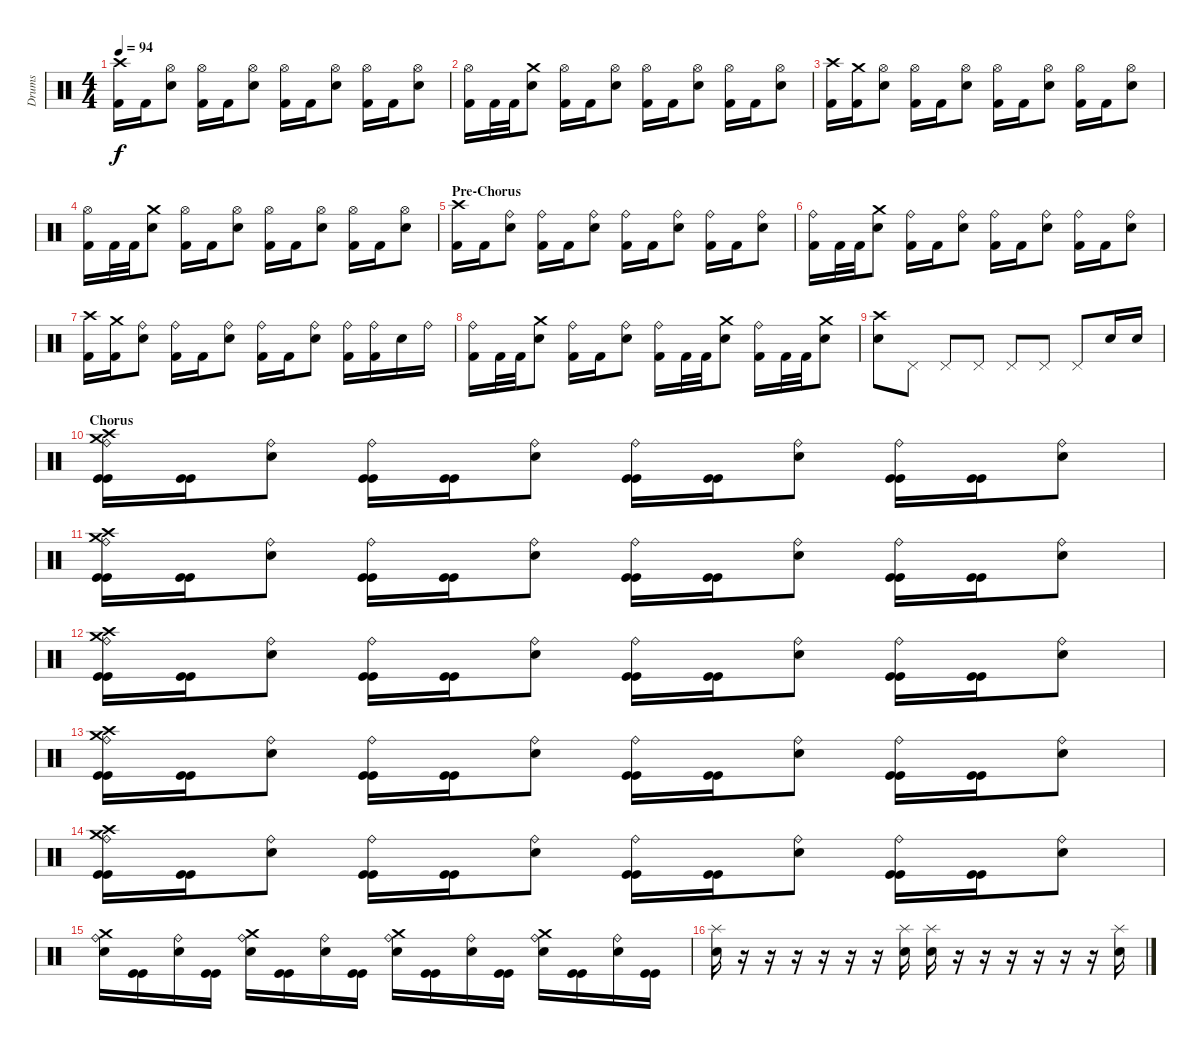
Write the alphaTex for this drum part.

\track ("Drums" "Drums") {instrument percussion}
\staff {score}
\articulation defaults
\ts (4 4)
\tempo 94
\clef neutral
\ks c
("Crash high (hit)" "Kick (hit) 2").16{dy f} "Kick (hit) 2".16 ("Hi-Hat (open)" "Snare (hit) 2").8 ("Hi-Hat (open)" "Kick (hit) 2").16 "Kick (hit) 2".16 ("Hi-Hat (open)" "Snare (hit) 2").8 ("Hi-Hat (open)" "Kick (hit) 2").16 "Kick (hit) 2".16 ("Hi-Hat (open)" "Snare (hit) 2").8 ("Hi-Hat (open)" "Kick (hit) 2").16 "Kick (hit) 2".16 ("Hi-Hat (open)" "Snare (hit) 2").8 |
("Hi-Hat (open)" "Kick (hit) 2").16 "Kick (hit) 2".32 "Kick (hit) 2".32 ("Crash medium (hit)" "Snare (hit) 2").8 ("Hi-Hat (open)" "Kick (hit) 2").16 "Kick (hit) 2".16 ("Hi-Hat (open)" "Snare (hit) 2").8 ("Hi-Hat (open)" "Kick (hit) 2").16 "Kick (hit) 2".16 ("Hi-Hat (open)" "Snare (hit) 2").8 ("Hi-Hat (open)" "Kick (hit) 2").16 "Kick (hit) 2".16 ("Hi-Hat (open)" "Snare (hit) 2").8 |
("Crash high (hit)" "Kick (hit) 2").16 ("Crash medium (hit)" "Kick (hit) 2").16 ("Hi-Hat (open)" "Snare (hit) 2").8 ("Hi-Hat (open)" "Kick (hit) 2").16 "Kick (hit) 2".16 ("Hi-Hat (open)" "Snare (hit) 2").8 ("Hi-Hat (open)" "Kick (hit) 2").16 "Kick (hit) 2".16 ("Hi-Hat (open)" "Snare (hit) 2").8 ("Hi-Hat (open)" "Kick (hit) 2").16 "Kick (hit) 2".16 ("Hi-Hat (open)" "Snare (hit) 2").8 |
("Hi-Hat (open)" "Kick (hit) 2").16 "Kick (hit) 2".32 "Kick (hit) 2".32 ("Crash medium (hit)" "Snare (hit) 2").8 ("Hi-Hat (open)" "Kick (hit) 2").16 "Kick (hit) 2".16 ("Hi-Hat (open)" "Snare (hit) 2").8 ("Hi-Hat (open)" "Kick (hit) 2").16 "Kick (hit) 2".16 ("Hi-Hat (open)" "Snare (hit) 2").8 ("Hi-Hat (open)" "Kick (hit) 2").16 "Kick (hit) 2".16 ("Hi-Hat (open)" "Snare (hit) 2").8 |
\section ("" "Pre-Chorus")
("Crash high (hit)" "Kick (hit) 2").16 "Kick (hit) 2".16 ("Ride (bell)" "Snare (hit) 2").8 ("Ride (bell)" "Kick (hit) 2").16 "Kick (hit) 2".16 ("Ride (bell)" "Snare (hit) 2").8 ("Ride (bell)" "Kick (hit) 2").16 "Kick (hit) 2".16 ("Ride (bell)" "Snare (hit) 2").8 ("Ride (bell)" "Kick (hit) 2").16 "Kick (hit) 2".16 ("Ride (bell)" "Snare (hit) 2").8 |
("Ride (bell)" "Kick (hit) 2").16 "Kick (hit) 2".32 "Kick (hit) 2".32 ("Crash medium (hit)" "Snare (hit) 2").8 ("Ride (bell)" "Kick (hit) 2").16 "Kick (hit) 2".16 ("Ride (bell)" "Snare (hit) 2").8 ("Ride (bell)" "Kick (hit) 2").16 "Kick (hit) 2".16 ("Ride (bell)" "Snare (hit) 2").8 ("Ride (bell)" "Kick (hit) 2").16 "Kick (hit) 2".16 ("Ride (bell)" "Snare (hit) 2").8 |
("Crash high (hit)" "Kick (hit) 2").16 ("Crash medium (hit)" "Kick (hit) 2").16 ("Ride (bell)" "Snare (hit) 2").8 ("Ride (bell)" "Kick (hit) 2").16 "Kick (hit) 2".16 ("Ride (bell)" "Snare (hit) 2").8 ("Ride (bell)" "Kick (hit) 2").16 "Kick (hit) 2".16 ("Ride (bell)" "Snare (hit) 2").8 ("Ride (bell)" "Kick (hit) 2").16 ("Ride (bell)" "Kick (hit) 2").16 "Snare (hit) 2".16 "Ride (bell)".16 |
("Ride (bell)" "Kick (hit) 2").16 "Kick (hit) 2".32 "Kick (hit) 2".32 ("Crash medium (hit)" "Snare (hit) 2").8 ("Ride (bell)" "Kick (hit) 2").16 "Kick (hit) 2".16 ("Ride (bell)" "Snare (hit) 2").8 ("Ride (bell)" "Kick (hit) 2").16 "Kick (hit) 2".32 "Kick (hit) 2".32 ("Crash medium (hit)" "Snare (hit) 2").8 ("Ride (bell)" "Kick (hit) 2").16 "Kick (hit) 2".32 "Kick (hit) 2".32 ("Crash medium (hit)" "Snare (hit) 2").8 |
("Crash high (hit)" "Snare (hit) 2").8 "Pedal Hi-Hat (hit)".8 "Pedal Hi-Hat (hit)".8 "Pedal Hi-Hat (hit)".8 "Pedal Hi-Hat (hit)".8 "Pedal Hi-Hat (hit)".8 "Pedal Hi-Hat (hit)".8 "Snare (hit) 2".16 "Snare (hit) 2".16 |
\section ("" "Chorus")
("Ride (bell)" "Crash high (hit)" "Crash medium (hit)" "Kick (hit)" "Kick (hit)").16 ("Kick (hit)" "Kick (hit)").16 ("Ride (bell)" "Snare (hit) 2").8 ("Ride (bell)" "Kick (hit)" "Kick (hit)").16 ("Kick (hit)" "Kick (hit)").16 ("Ride (bell)" "Snare (hit) 2").8 ("Ride (bell)" "Kick (hit)" "Kick (hit)").16 ("Kick (hit)" "Kick (hit)").16 ("Ride (bell)" "Snare (hit) 2").8 ("Ride (bell)" "Kick (hit)" "Kick (hit)").16 ("Kick (hit)" "Kick (hit)").16 ("Ride (bell)" "Snare (hit) 2").8 |
("Ride (bell)" "Crash high (hit)" "Crash medium (hit)" "Kick (hit)" "Kick (hit)").16 ("Kick (hit)" "Kick (hit)").16 ("Ride (bell)" "Snare (hit) 2").8 ("Ride (bell)" "Kick (hit)" "Kick (hit)").16 ("Kick (hit)" "Kick (hit)").16 ("Ride (bell)" "Snare (hit) 2").8 ("Ride (bell)" "Kick (hit)" "Kick (hit)").16 ("Kick (hit)" "Kick (hit)").16 ("Ride (bell)" "Snare (hit) 2").8 ("Ride (bell)" "Kick (hit)" "Kick (hit)").16 ("Kick (hit)" "Kick (hit)").16 ("Ride (bell)" "Snare (hit) 2").8 |
("Ride (bell)" "Crash high (hit)" "Crash medium (hit)" "Kick (hit)" "Kick (hit)").16 ("Kick (hit)" "Kick (hit)").16 ("Ride (bell)" "Snare (hit) 2").8 ("Ride (bell)" "Kick (hit)" "Kick (hit)").16 ("Kick (hit)" "Kick (hit)").16 ("Ride (bell)" "Snare (hit) 2").8 ("Ride (bell)" "Kick (hit)" "Kick (hit)").16 ("Kick (hit)" "Kick (hit)").16 ("Ride (bell)" "Snare (hit) 2").8 ("Ride (bell)" "Kick (hit)" "Kick (hit)").16 ("Kick (hit)" "Kick (hit)").16 ("Ride (bell)" "Snare (hit) 2").8 |
("Ride (bell)" "Crash high (hit)" "Crash medium (hit)" "Kick (hit)" "Kick (hit)").16 ("Kick (hit)" "Kick (hit)").16 ("Ride (bell)" "Snare (hit) 2").8 ("Ride (bell)" "Kick (hit)" "Kick (hit)").16 ("Kick (hit)" "Kick (hit)").16 ("Ride (bell)" "Snare (hit) 2").8 ("Ride (bell)" "Kick (hit)" "Kick (hit)").16 ("Kick (hit)" "Kick (hit)").16 ("Ride (bell)" "Snare (hit) 2").8 ("Ride (bell)" "Kick (hit)" "Kick (hit)").16 ("Kick (hit)" "Kick (hit)").16 ("Ride (bell)" "Snare (hit) 2").8 |
("Ride (bell)" "Crash high (hit)" "Crash medium (hit)" "Kick (hit)" "Kick (hit)").16 ("Kick (hit)" "Kick (hit)").16 ("Ride (bell)" "Snare (hit) 2").8 ("Ride (bell)" "Kick (hit)" "Kick (hit)").16 ("Kick (hit)" "Kick (hit)").16 ("Ride (bell)" "Snare (hit) 2").8 ("Ride (bell)" "Kick (hit)" "Kick (hit)").16 ("Kick (hit)" "Kick (hit)").16 ("Ride (bell)" "Snare (hit) 2").8 ("Ride (bell)" "Kick (hit)" "Kick (hit)").16 ("Kick (hit)" "Kick (hit)").16 ("Ride (bell)" "Snare (hit) 2").8 |
("Ride (bell)" "Snare (hit) 2" "Crash medium (hit)").16 ("Kick (hit)" "Kick (hit)").16 ("Ride (bell)" "Snare (hit) 2").16 ("Kick (hit)" "Kick (hit)").16 ("Ride (bell)" "Snare (hit) 2" "Crash medium (hit)").16 ("Kick (hit)" "Kick (hit)").16 ("Ride (bell)" "Snare (hit) 2").16 ("Kick (hit)" "Kick (hit)").16 ("Ride (bell)" "Snare (hit) 2" "Crash medium (hit)").16 ("Kick (hit)" "Kick (hit)").16 ("Ride (bell)" "Snare (hit) 2").16 ("Kick (hit)" "Kick (hit)").16 ("Ride (bell)" "Snare (hit) 2" "Crash medium (hit)").16 ("Kick (hit)" "Kick (hit)").16 ("Ride (bell)" "Snare (hit) 2").16 ("Kick (hit)" "Kick (hit)").16 |
("Splash (hit)" "Snare (hit) 2").16 r.16 r.16 r.16 r.16 r.16 r.16 ("Splash (hit)" "Snare (hit) 2").16 ("Splash (hit)" "Snare (hit) 2").16 r.16 r.16 r.16 r.16 r.16 r.16 ("Splash (hit)" "Snare (hit) 2").16
